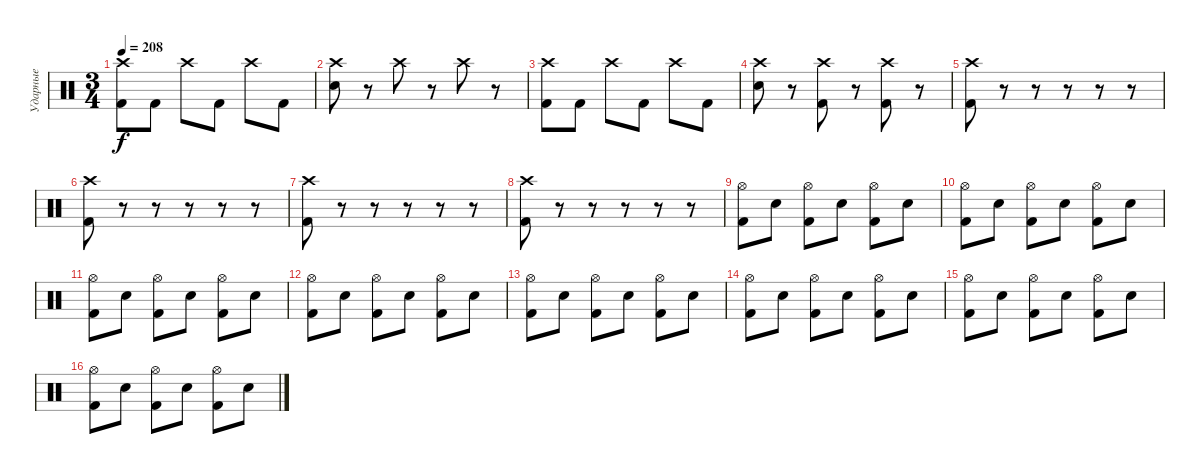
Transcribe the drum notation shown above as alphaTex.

\track ("Ударные" "Ударные") {instrument percussion}
\staff {score}
\articulation defaults
\ts (3 4)
\tempo 208
\clef neutral
\ks c
("Crash high (hit)" "Kick (hit) 2").8{dy f} "Kick (hit) 2".8 "Crash high (hit)".8 "Kick (hit) 2".8 "Crash high (hit)".8 "Kick (hit) 2".8 |
("Crash high (hit)" "Electric Snare (hit)").8 r.8 "Crash high (hit)".8 r.8 "Crash high (hit)".8 r.8 |
("Crash high (hit)" "Kick (hit) 2").8 "Kick (hit) 2".8 "Crash high (hit)".8 "Kick (hit) 2".8 "Crash high (hit)".8 "Kick (hit) 2".8 |
("Crash high (hit)" "Electric Snare (hit)").8 r.8 ("Crash high (hit)" "Kick (hit) 2").8 r.8 ("Crash high (hit)" "Kick (hit) 2").8 r.8 |
("Crash high (hit)" "Kick (hit) 2").8 r.8 r.8 r.8 r.8 r.8 |
("Crash high (hit)" "Kick (hit) 2").8 r.8 r.8 r.8 r.8 r.8 |
("Crash high (hit)" "Kick (hit) 2").8 r.8 r.8 r.8 r.8 r.8 |
("Crash high (hit)" "Kick (hit) 2").8 r.8 r.8 r.8 r.8 r.8 |
("Hi-Hat (open)" "Kick (hit) 2").8 "Electric Snare (hit)".8 ("Hi-Hat (open)" "Kick (hit) 2").8 "Electric Snare (hit)".8 ("Hi-Hat (open)" "Kick (hit) 2").8 "Electric Snare (hit)".8 |
("Hi-Hat (open)" "Kick (hit) 2").8 "Electric Snare (hit)".8 ("Hi-Hat (open)" "Kick (hit) 2").8 "Electric Snare (hit)".8 ("Hi-Hat (open)" "Kick (hit) 2").8 "Electric Snare (hit)".8 |
("Hi-Hat (open)" "Kick (hit) 2").8 "Electric Snare (hit)".8 ("Hi-Hat (open)" "Kick (hit) 2").8 "Electric Snare (hit)".8 ("Hi-Hat (open)" "Kick (hit) 2").8 "Electric Snare (hit)".8 |
("Hi-Hat (open)" "Kick (hit) 2").8 "Electric Snare (hit)".8 ("Hi-Hat (open)" "Kick (hit) 2").8 "Electric Snare (hit)".8 ("Hi-Hat (open)" "Kick (hit) 2").8 "Electric Snare (hit)".8 |
("Hi-Hat (open)" "Kick (hit) 2").8 "Electric Snare (hit)".8 ("Hi-Hat (open)" "Kick (hit) 2").8 "Electric Snare (hit)".8 ("Hi-Hat (open)" "Kick (hit) 2").8 "Electric Snare (hit)".8 |
("Hi-Hat (open)" "Kick (hit) 2").8 "Electric Snare (hit)".8 ("Hi-Hat (open)" "Kick (hit) 2").8 "Electric Snare (hit)".8 ("Hi-Hat (open)" "Kick (hit) 2").8 "Electric Snare (hit)".8 |
("Hi-Hat (open)" "Kick (hit) 2").8 "Electric Snare (hit)".8 ("Hi-Hat (open)" "Kick (hit) 2").8 "Electric Snare (hit)".8 ("Hi-Hat (open)" "Kick (hit) 2").8 "Electric Snare (hit)".8 |
("Hi-Hat (open)" "Kick (hit) 2").8 "Electric Snare (hit)".8 ("Hi-Hat (open)" "Kick (hit) 2").8 "Electric Snare (hit)".8 ("Hi-Hat (open)" "Kick (hit) 2").8 "Electric Snare (hit)".8
